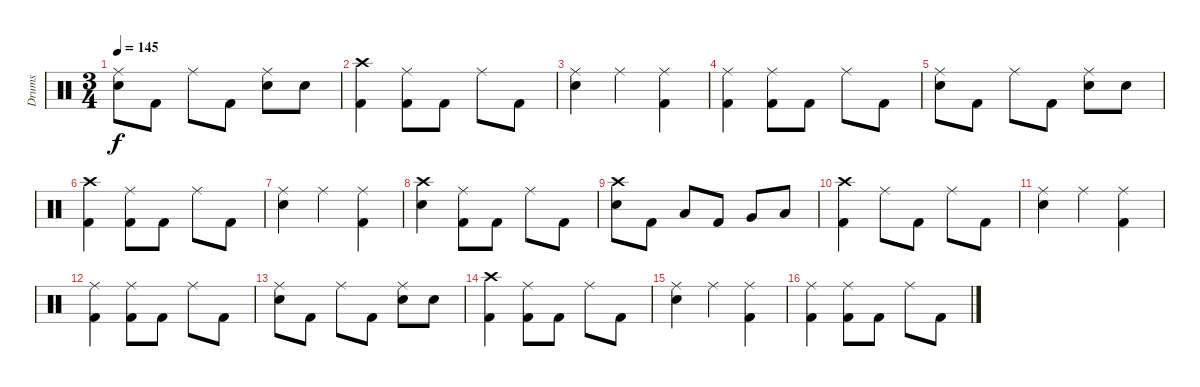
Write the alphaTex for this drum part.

\track ("Drums" "Drums") {instrument percussion}
\staff {score}
\articulation defaults
\ts (3 4)
\tempo 145
\clef neutral
\ks c
("Ride (middle)" "Snare (hit) 2").8{dy f} "Kick (hit) 2".8 "Ride (middle)".8 "Kick (hit) 2".8 ("Ride (middle)" "Snare (hit) 2").8 "Snare (hit) 2".8 |
("Crash high (hit)" "Kick (hit) 2").4 ("Ride (middle)" "Kick (hit) 2").8 "Kick (hit) 2".8 "Ride (middle)".8 "Kick (hit) 2".8 |
("Ride (middle)" "Snare (hit) 2").4 "Ride (middle)".4 ("Ride (middle)" "Kick (hit) 2").4 |
("Ride (middle)" "Kick (hit) 2").4 ("Ride (middle)" "Kick (hit) 2").8 "Kick (hit) 2".8 "Ride (middle)".8 "Kick (hit) 2".8 |
("Ride (middle)" "Snare (hit) 2").8 "Kick (hit) 2".8 "Ride (middle)".8 "Kick (hit) 2".8 ("Ride (middle)" "Snare (hit) 2").8 "Snare (hit) 2".8 |
("Crash high (hit)" "Kick (hit) 2").4 ("Ride (middle)" "Kick (hit) 2").8 "Kick (hit) 2".8 "Ride (middle)".8 "Kick (hit) 2".8 |
("Ride (middle)" "Snare (hit) 2").4 "Ride (middle)".4 ("Ride (middle)" "Kick (hit) 2").4 |
("Crash high (hit)" "Snare (hit) 2").4 ("Ride (middle)" "Kick (hit) 2").8 "Kick (hit) 2".8 "Ride (middle)".8 "Kick (hit) 2".8 |
("Crash high (hit)" "Snare (hit) 2").8 "Kick (hit) 2".8 "Low Tom (hit)".8 "Kick (hit) 2".8 "Very Low Tom (hit)".8 "Low Floor Tom (hit)".8 |
("Crash high (hit)" "Kick (hit) 2").4 "Ride (middle)".8 "Kick (hit) 2".8 "Ride (middle)".8 "Kick (hit) 2".8 |
("Ride (middle)" "Snare (hit) 2").4 "Ride (middle)".4 ("Ride (middle)" "Kick (hit) 2").4 |
("Ride (middle)" "Kick (hit) 2").4 ("Ride (middle)" "Kick (hit) 2").8 "Kick (hit) 2".8 "Ride (middle)".8 "Kick (hit) 2".8 |
("Ride (middle)" "Snare (hit) 2").8 "Kick (hit) 2".8 "Ride (middle)".8 "Kick (hit) 2".8 ("Ride (middle)" "Snare (hit) 2").8 "Snare (hit) 2".8 |
("Crash high (hit)" "Kick (hit) 2").4 ("Ride (middle)" "Kick (hit) 2").8 "Kick (hit) 2".8 "Ride (middle)".8 "Kick (hit) 2".8 |
("Ride (middle)" "Snare (hit) 2").4 "Ride (middle)".4 ("Ride (middle)" "Kick (hit) 2").4 |
("Ride (middle)" "Kick (hit) 2").4 ("Ride (middle)" "Kick (hit) 2").8 "Kick (hit) 2".8 "Ride (middle)".8 "Kick (hit) 2".8
